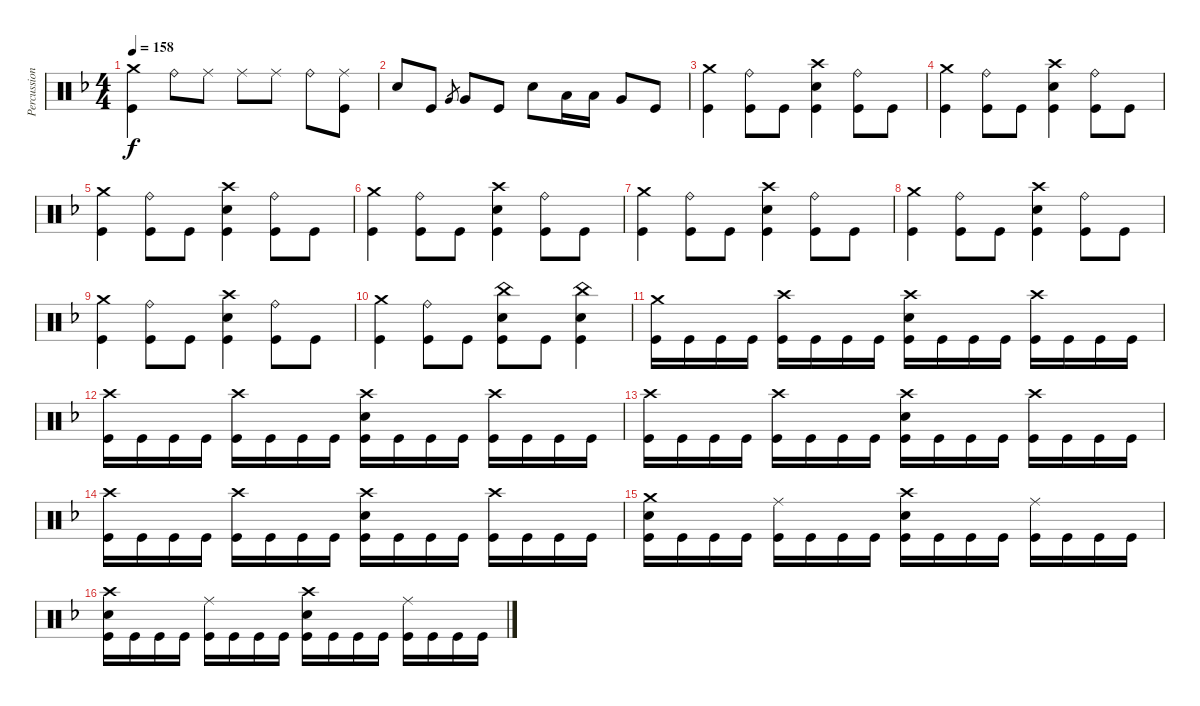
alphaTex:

\track ("Percussion" "Percussion") {instrument percussion}
\staff {score}
\articulation defaults
\ts (4 4)
\tempo 158
\clef neutral
\ks f
("Crash medium (hit)" "Kick (hit)").4{dy f} "Ride (bell)".8 "Ride (middle)".8 "Ride (middle)".8 "Ride (middle)".8 "Ride (bell)".8 ("Ride (middle)" "Kick (hit)").8 |
"Electric Snare (hit)".8 "Kick (hit)".8 "Very Low Tom (hit)".8{gr} "Very Low Tom (hit)".8 "Kick (hit)".8 "Electric Snare (hit)".8 "Low Tom (hit)".16 "Low Tom (hit)".16 "Very Low Tom (hit)".8 "Kick (hit)".8 |
("Crash medium (hit)" "Kick (hit)").4 ("Ride (bell)" "Kick (hit)").8 "Kick (hit)".8 ("Crash high (hit)" "Electric Snare (hit)" "Kick (hit)").4 ("Ride (bell)" "Kick (hit)").8 "Kick (hit)".8 |
("Crash medium (hit)" "Kick (hit)").4 ("Ride (bell)" "Kick (hit)").8 "Kick (hit)".8 ("Crash high (hit)" "Electric Snare (hit)" "Kick (hit)").4 ("Ride (bell)" "Kick (hit)").8 "Kick (hit)".8 |
("Crash medium (hit)" "Kick (hit)").4 ("Ride (bell)" "Kick (hit)").8 "Kick (hit)".8 ("Crash high (hit)" "Electric Snare (hit)" "Kick (hit)").4 ("Ride (bell)" "Kick (hit)").8 "Kick (hit)".8 |
("Crash medium (hit)" "Kick (hit)").4 ("Ride (bell)" "Kick (hit)").8 "Kick (hit)".8 ("Crash high (hit)" "Electric Snare (hit)" "Kick (hit)").4 ("Ride (bell)" "Kick (hit)").8 "Kick (hit)".8 |
("Crash medium (hit)" "Kick (hit)").4 ("Ride (bell)" "Kick (hit)").8 "Kick (hit)".8 ("Crash high (hit)" "Electric Snare (hit)" "Kick (hit)").4 ("Ride (bell)" "Kick (hit)").8 "Kick (hit)".8 |
("Crash medium (hit)" "Kick (hit)").4 ("Ride (bell)" "Kick (hit)").8 "Kick (hit)".8 ("Crash high (hit)" "Electric Snare (hit)" "Kick (hit)").4 ("Ride (bell)" "Kick (hit)").8 "Kick (hit)".8 |
("Crash medium (hit)" "Kick (hit)").4 ("Ride (bell)" "Kick (hit)").8 "Kick (hit)".8 ("Crash high (hit)" "Electric Snare (hit)" "Kick (hit)").4 ("Ride (bell)" "Kick (hit)").8 "Kick (hit)".8 |
("Crash medium (hit)" "Kick (hit)").4 ("Ride (bell)" "Kick (hit)").8 "Kick (hit)".8 ("China (hit)" "Electric Snare (hit)" "Kick (hit)").8 "Kick (hit)".8 ("China (hit)" "Electric Snare (hit)" "Kick (hit)").4 |
("Crash medium (hit)" "Kick (hit)").16 "Kick (hit)".16 "Kick (hit)".16 "Kick (hit)".16 ("Crash high (hit)" "Kick (hit)").16 "Kick (hit)".16 "Kick (hit)".16 "Kick (hit)".16 ("Crash high (hit)" "Electric Snare (hit)" "Kick (hit)").16 "Kick (hit)".16 "Kick (hit)".16 "Kick (hit)".16 ("Crash high (hit)" "Kick (hit)").16 "Kick (hit)".16 "Kick (hit)".16 "Kick (hit)".16 |
("Crash high (hit)" "Kick (hit)").16 "Kick (hit)".16 "Kick (hit)".16 "Kick (hit)".16 ("Crash high (hit)" "Kick (hit)").16 "Kick (hit)".16 "Kick (hit)".16 "Kick (hit)".16 ("Crash high (hit)" "Electric Snare (hit)" "Kick (hit)").16 "Kick (hit)".16 "Kick (hit)".16 "Kick (hit)".16 ("Crash high (hit)" "Kick (hit)").16 "Kick (hit)".16 "Kick (hit)".16 "Kick (hit)".16 |
("Crash high (hit)" "Kick (hit)").16 "Kick (hit)".16 "Kick (hit)".16 "Kick (hit)".16 ("Crash high (hit)" "Kick (hit)").16 "Kick (hit)".16 "Kick (hit)".16 "Kick (hit)".16 ("Crash high (hit)" "Electric Snare (hit)" "Kick (hit)").16 "Kick (hit)".16 "Kick (hit)".16 "Kick (hit)".16 ("Crash high (hit)" "Kick (hit)").16 "Kick (hit)".16 "Kick (hit)".16 "Kick (hit)".16 |
("Crash high (hit)" "Kick (hit)").16 "Kick (hit)".16 "Kick (hit)".16 "Kick (hit)".16 ("Crash high (hit)" "Kick (hit)").16 "Kick (hit)".16 "Kick (hit)".16 "Kick (hit)".16 ("Crash high (hit)" "Electric Snare (hit)" "Kick (hit)").16 "Kick (hit)".16 "Kick (hit)".16 "Kick (hit)".16 ("Crash high (hit)" "Kick (hit)").16 "Kick (hit)".16 "Kick (hit)".16 "Kick (hit)".16 |
("Crash medium (hit)" "Electric Snare (hit)" "Kick (hit)").16 "Kick (hit)".16 "Kick (hit)".16 "Kick (hit)".16 ("Ride (middle)" "Kick (hit)").16 "Kick (hit)".16 "Kick (hit)".16 "Kick (hit)".16 ("Crash high (hit)" "Electric Snare (hit)" "Kick (hit)").16 "Kick (hit)".16 "Kick (hit)".16 "Kick (hit)".16 ("Ride (middle)" "Kick (hit)").16 "Kick (hit)".16 "Kick (hit)".16 "Kick (hit)".16 |
("Crash high (hit)" "Electric Snare (hit)" "Kick (hit)").16 "Kick (hit)".16 "Kick (hit)".16 "Kick (hit)".16 ("Ride (middle)" "Kick (hit)").16 "Kick (hit)".16 "Kick (hit)".16 "Kick (hit)".16 ("Crash high (hit)" "Electric Snare (hit)" "Kick (hit)").16 "Kick (hit)".16 "Kick (hit)".16 "Kick (hit)".16 ("Ride (middle)" "Kick (hit)").16 "Kick (hit)".16 "Kick (hit)".16 "Kick (hit)".16
